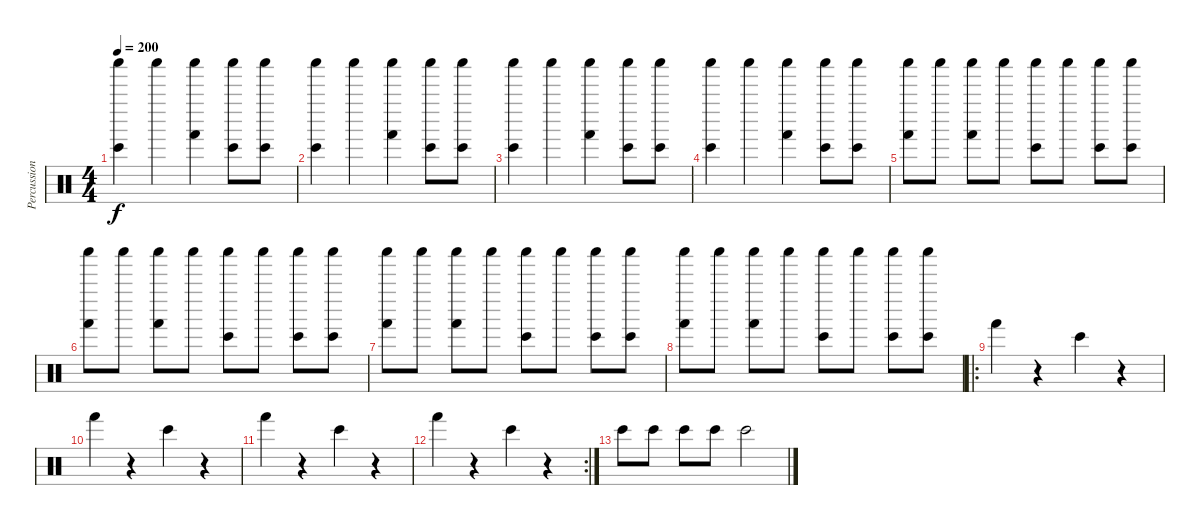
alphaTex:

\track ("Percussions" "Percussion") {instrument percussion}
\staff {score}
\articulation defaults
\ts (4 4)
\tempo 200
\clef neutral
\ks c
("Shaker (hit)" "Bongo High (hit)").4{dy f} "Shaker (hit)".4 ("Shaker (hit)" "Hand (hit)").4 ("Shaker (hit)" "Bongo High (hit)").8 ("Shaker (hit)" "Bongo High (hit)").8 |
("Shaker (hit)" "Bongo High (hit)").4 "Shaker (hit)".4 ("Shaker (hit)" "Hand (hit)").4 ("Shaker (hit)" "Bongo High (hit)").8 ("Shaker (hit)" "Bongo High (hit)").8 |
("Shaker (hit)" "Bongo High (hit)").4 "Shaker (hit)".4 ("Shaker (hit)" "Hand (hit)").4 ("Shaker (hit)" "Bongo High (hit)").8 ("Shaker (hit)" "Bongo High (hit)").8 |
("Shaker (hit)" "Bongo High (hit)").4 "Shaker (hit)".4 ("Shaker (hit)" "Hand (hit)").4 ("Shaker (hit)" "Bongo High (hit)").8 ("Shaker (hit)" "Bongo High (hit)").8 |
("Shaker (hit)" "Hand (hit)").8 "Shaker (hit)".8 ("Shaker (hit)" "Hand (hit)").8 "Shaker (hit)".8 ("Shaker (hit)" "Bongo High (hit)").8 "Shaker (hit)".8 ("Shaker (hit)" "Bongo High (hit)").8 ("Shaker (hit)" "Bongo High (hit)").8 |
("Shaker (hit)" "Hand (hit)").8 "Shaker (hit)".8 ("Shaker (hit)" "Hand (hit)").8 "Shaker (hit)".8 ("Shaker (hit)" "Bongo High (hit)").8 "Shaker (hit)".8 ("Shaker (hit)" "Bongo High (hit)").8 ("Shaker (hit)" "Bongo High (hit)").8 |
("Shaker (hit)" "Hand (hit)").8 "Shaker (hit)".8 ("Shaker (hit)" "Hand (hit)").8 "Shaker (hit)".8 ("Shaker (hit)" "Bongo High (hit)").8 "Shaker (hit)".8 ("Shaker (hit)" "Bongo High (hit)").8 ("Shaker (hit)" "Bongo High (hit)").8 |
("Shaker (hit)" "Hand (hit)").8 "Shaker (hit)".8 ("Shaker (hit)" "Hand (hit)").8 "Shaker (hit)".8 ("Shaker (hit)" "Bongo High (hit)").8 "Shaker (hit)".8 ("Shaker (hit)" "Bongo High (hit)").8 ("Shaker (hit)" "Bongo High (hit)").8 |
\ro "Hand (hit)".4
r.4 "Bongo High (hit)".4 r.4 |
"Hand (hit)".4 r.4 "Bongo High (hit)".4 r.4 |
"Hand (hit)".4 r.4 "Bongo High (hit)".4 r.4 |
\rc 2 "Hand (hit)".4
r.4 "Bongo High (hit)".4 r.4 |
"Bongo High (hit)".8 "Bongo High (hit)".8 "Bongo High (hit)".8 "Bongo High (hit)".8 "Bongo High (hit)".2
